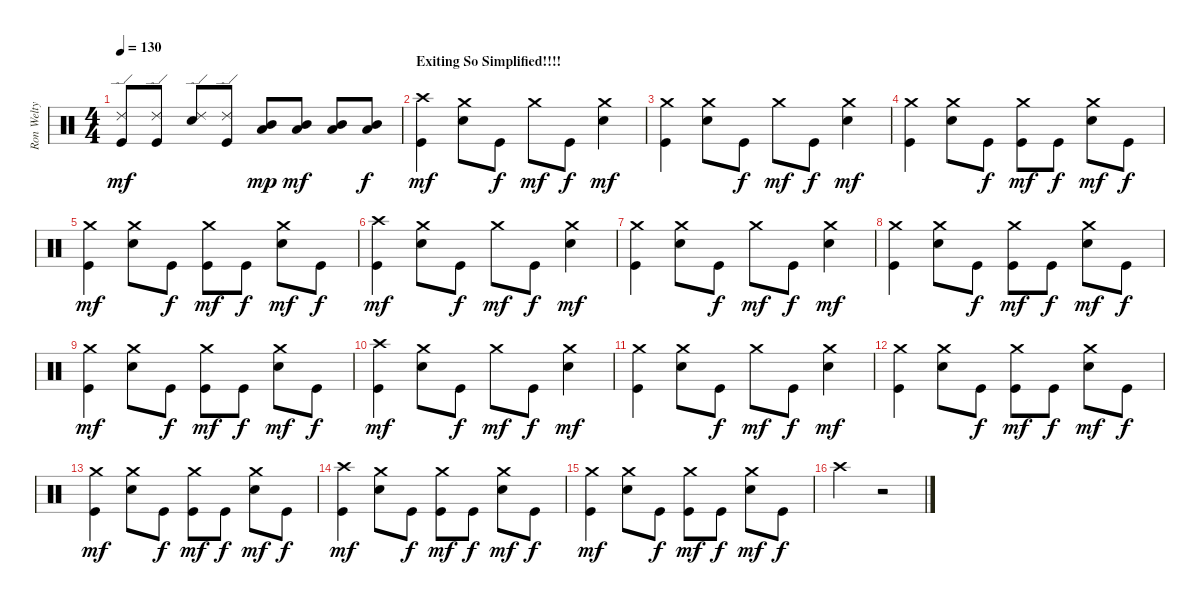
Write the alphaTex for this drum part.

\track ("Ron Welty" "Ron Welty") {instrument percussion}
\staff {score}
\articulation defaults
\ts (4 4)
\tempo 130
\clef neutral
\ks c
("Kick (hit)" "Ride (edge) 2").8{dy mf} ("Kick (hit)" "Ride (edge) 2").8 ("Electric Snare (hit)" "Ride (edge) 2").8 ("Kick (hit)" "Ride (edge) 2").8 ("Low Floor Tom (hit)" "Mid Tom (hit)").8{dy mp} ("Mid Tom (hit)" "Low Floor Tom (hit)").8{dy mf} ("Mid Tom (hit)" "Low Floor Tom (hit)").8 ("Mid Tom (hit)" "Low Floor Tom (hit)").8{dy f} |
\section ("" "Exiting So Simplified!!!!")
("Kick (hit)" "Crash high (hit)").4{dy mf} ("Electric Snare (hit)" "Crash medium (hit)").8 "Kick (hit)".8{dy f} "Crash medium (hit)".8{dy mf} "Kick (hit)".8{dy f} ("Electric Snare (hit)" "Crash medium (hit)").4{dy mf} |
("Kick (hit)" "Crash medium (hit)").4 ("Electric Snare (hit)" "Crash medium (hit)").8 "Kick (hit)".8{dy f} "Crash medium (hit)".8{dy mf} "Kick (hit)".8{dy f} ("Electric Snare (hit)" "Crash medium (hit)").4{dy mf} |
("Kick (hit)" "Crash medium (hit)").4 ("Electric Snare (hit)" "Crash medium (hit)").8 "Kick (hit)".8{dy f} ("Kick (hit)" "Crash medium (hit)").8{dy mf} "Kick (hit)".8{dy f} ("Electric Snare (hit)" "Crash medium (hit)").8{dy mf} "Kick (hit)".8{dy f} |
("Kick (hit)" "Crash medium (hit)").4{dy mf} ("Electric Snare (hit)" "Crash medium (hit)").8 "Kick (hit)".8{dy f} ("Kick (hit)" "Crash medium (hit)").8{dy mf} "Kick (hit)".8{dy f} ("Electric Snare (hit)" "Crash medium (hit)").8{dy mf} "Kick (hit)".8{dy f} |
("Kick (hit)" "Crash high (hit)").4{dy mf} ("Electric Snare (hit)" "Crash medium (hit)").8 "Kick (hit)".8{dy f} "Crash medium (hit)".8{dy mf} "Kick (hit)".8{dy f} ("Electric Snare (hit)" "Crash medium (hit)").4{dy mf} |
("Kick (hit)" "Crash medium (hit)").4 ("Electric Snare (hit)" "Crash medium (hit)").8 "Kick (hit)".8{dy f} "Crash medium (hit)".8{dy mf} "Kick (hit)".8{dy f} ("Electric Snare (hit)" "Crash medium (hit)").4{dy mf} |
("Kick (hit)" "Crash medium (hit)").4 ("Electric Snare (hit)" "Crash medium (hit)").8 "Kick (hit)".8{dy f} ("Kick (hit)" "Crash medium (hit)").8{dy mf} "Kick (hit)".8{dy f} ("Electric Snare (hit)" "Crash medium (hit)").8{dy mf} "Kick (hit)".8{dy f} |
("Kick (hit)" "Crash medium (hit)").4{dy mf} ("Electric Snare (hit)" "Crash medium (hit)").8 "Kick (hit)".8{dy f} ("Kick (hit)" "Crash medium (hit)").8{dy mf} "Kick (hit)".8{dy f} ("Electric Snare (hit)" "Crash medium (hit)").8{dy mf} "Kick (hit)".8{dy f} |
("Kick (hit)" "Crash high (hit)").4{dy mf} ("Electric Snare (hit)" "Crash medium (hit)").8 "Kick (hit)".8{dy f} "Crash medium (hit)".8{dy mf} "Kick (hit)".8{dy f} ("Electric Snare (hit)" "Crash medium (hit)").4{dy mf} |
("Kick (hit)" "Crash medium (hit)").4 ("Electric Snare (hit)" "Crash medium (hit)").8 "Kick (hit)".8{dy f} "Crash medium (hit)".8{dy mf} "Kick (hit)".8{dy f} ("Electric Snare (hit)" "Crash medium (hit)").4{dy mf} |
("Kick (hit)" "Crash medium (hit)").4 ("Electric Snare (hit)" "Crash medium (hit)").8 "Kick (hit)".8{dy f} ("Kick (hit)" "Crash medium (hit)").8{dy mf} "Kick (hit)".8{dy f} ("Electric Snare (hit)" "Crash medium (hit)").8{dy mf} "Kick (hit)".8{dy f} |
("Kick (hit)" "Crash medium (hit)").4{dy mf} ("Electric Snare (hit)" "Crash medium (hit)").8 "Kick (hit)".8{dy f} ("Kick (hit)" "Crash medium (hit)").8{dy mf} "Kick (hit)".8{dy f} ("Electric Snare (hit)" "Crash medium (hit)").8{dy mf} "Kick (hit)".8{dy f} |
("Kick (hit)" "Crash high (hit)").4{dy mf} ("Electric Snare (hit)" "Crash medium (hit)").8 "Kick (hit)".8{dy f} ("Kick (hit)" "Crash medium (hit)").8{dy mf} "Kick (hit)".8{dy f} ("Electric Snare (hit)" "Crash medium (hit)").8{dy mf} "Kick (hit)".8{dy f} |
("Kick (hit)" "Crash medium (hit)").4{dy mf} ("Electric Snare (hit)" "Crash medium (hit)").8 "Kick (hit)".8{dy f} ("Kick (hit)" "Crash medium (hit)").8{dy mf} "Kick (hit)".8{dy f} ("Electric Snare (hit)" "Crash medium (hit)").8{dy mf} "Kick (hit)".8{dy f} |
"Crash high (hit)".2 r.2
